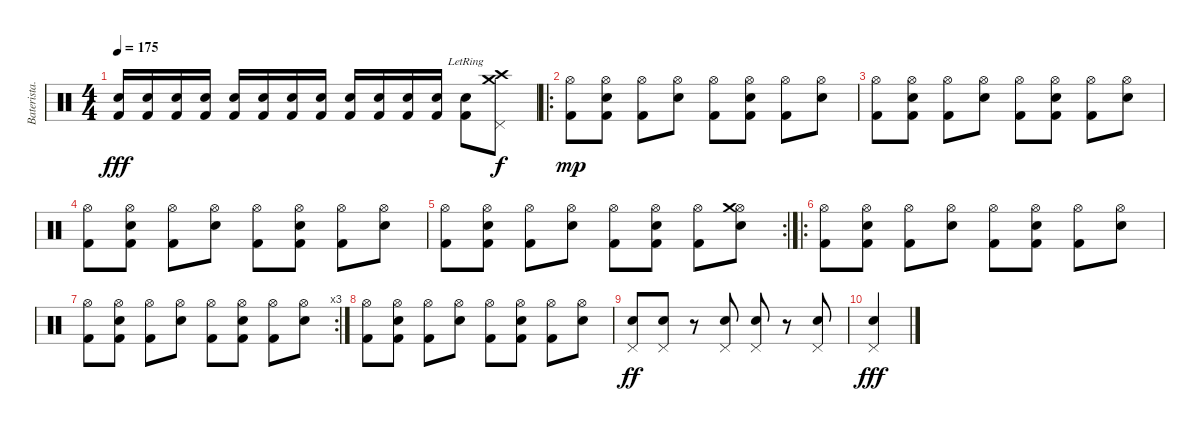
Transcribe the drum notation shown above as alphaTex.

\track ("Baterista." "Baterista.") {instrument percussion}
\staff {score}
\articulation defaults
\ts (4 4)
\tempo 175
\clef neutral
\ks c
("Kick (hit) 2" "Electric Snare (hit)").16{dy fff} ("Kick (hit) 2" "Electric Snare (hit)").16 ("Kick (hit) 2" "Electric Snare (hit)").16 ("Kick (hit) 2" "Electric Snare (hit)").16 ("Kick (hit) 2" "Electric Snare (hit)").16 ("Kick (hit) 2" "Electric Snare (hit)").16 ("Kick (hit) 2" "Electric Snare (hit)").16 ("Kick (hit) 2" "Electric Snare (hit)").16 ("Kick (hit) 2" "Electric Snare (hit)").16 ("Kick (hit) 2" "Electric Snare (hit)").16 ("Kick (hit) 2" "Electric Snare (hit)").16 ("Kick (hit) 2" "Electric Snare (hit)").16 ("Kick (hit) 2"{lr} "Electric Snare (hit)"{lr}).8 ("Crash high (hit)" "Pedal Hi-Hat (hit)" "Crash medium (hit)").8{dy f} |
\ro
("Kick (hit) 2" "Hi-Hat (open)").8{dy mp} ("Kick (hit) 2" "Hi-Hat (open)" "Electric Snare (hit)").8 ("Kick (hit) 2" "Hi-Hat (open)").8 ("Hi-Hat (open)" "Electric Snare (hit)").8 ("Kick (hit) 2" "Hi-Hat (open)").8 ("Kick (hit) 2" "Hi-Hat (open)" "Electric Snare (hit)").8 ("Kick (hit) 2" "Hi-Hat (open)").8 ("Hi-Hat (open)" "Electric Snare (hit)").8 |
("Kick (hit) 2" "Hi-Hat (open)").8 ("Kick (hit) 2" "Hi-Hat (open)" "Electric Snare (hit)").8 ("Kick (hit) 2" "Hi-Hat (open)").8 ("Hi-Hat (open)" "Electric Snare (hit)").8 ("Kick (hit) 2" "Hi-Hat (open)").8 ("Kick (hit) 2" "Hi-Hat (open)" "Electric Snare (hit)").8 ("Kick (hit) 2" "Hi-Hat (open)").8 ("Hi-Hat (open)" "Electric Snare (hit)").8 |
("Kick (hit) 2" "Hi-Hat (open)").8 ("Kick (hit) 2" "Hi-Hat (open)" "Electric Snare (hit)").8 ("Kick (hit) 2" "Hi-Hat (open)").8 ("Hi-Hat (open)" "Electric Snare (hit)").8 ("Kick (hit) 2" "Hi-Hat (open)").8 ("Kick (hit) 2" "Hi-Hat (open)" "Electric Snare (hit)").8 ("Kick (hit) 2" "Hi-Hat (open)").8 ("Hi-Hat (open)" "Electric Snare (hit)").8 |
\rc 2
("Kick (hit) 2" "Hi-Hat (open)").8 ("Kick (hit) 2" "Hi-Hat (open)" "Electric Snare (hit)").8 ("Kick (hit) 2" "Hi-Hat (open)").8 ("Hi-Hat (open)" "Electric Snare (hit)").8 ("Kick (hit) 2" "Hi-Hat (open)").8 ("Kick (hit) 2" "Hi-Hat (open)" "Electric Snare (hit)").8 ("Kick (hit) 2" "Hi-Hat (open)").8 ("Hi-Hat (open)" "Electric Snare (hit)" "Crash medium (hit)").8 |
\ro
("Kick (hit) 2" "Hi-Hat (open)").8 ("Kick (hit) 2" "Hi-Hat (open)" "Electric Snare (hit)").8 ("Kick (hit) 2" "Hi-Hat (open)").8 ("Hi-Hat (open)" "Electric Snare (hit)").8 ("Kick (hit) 2" "Hi-Hat (open)").8 ("Kick (hit) 2" "Hi-Hat (open)" "Electric Snare (hit)").8 ("Kick (hit) 2" "Hi-Hat (open)").8 ("Hi-Hat (open)" "Electric Snare (hit)").8 |
\rc 3
("Kick (hit) 2" "Hi-Hat (open)").8 ("Kick (hit) 2" "Hi-Hat (open)" "Electric Snare (hit)").8 ("Kick (hit) 2" "Hi-Hat (open)").8 ("Hi-Hat (open)" "Electric Snare (hit)").8 ("Kick (hit) 2" "Hi-Hat (open)").8 ("Kick (hit) 2" "Hi-Hat (open)" "Electric Snare (hit)").8 ("Kick (hit) 2" "Hi-Hat (open)").8 ("Hi-Hat (open)" "Electric Snare (hit)").8 |
("Kick (hit) 2" "Hi-Hat (open)").8 ("Kick (hit) 2" "Hi-Hat (open)" "Electric Snare (hit)").8 ("Kick (hit) 2" "Hi-Hat (open)").8 ("Hi-Hat (open)" "Electric Snare (hit)").8 ("Kick (hit) 2" "Hi-Hat (open)").8 ("Kick (hit) 2" "Hi-Hat (open)" "Electric Snare (hit)").8 ("Kick (hit) 2" "Hi-Hat (open)").8 ("Hi-Hat (open)" "Electric Snare (hit)").8 |
("Pedal Hi-Hat (hit)" "Electric Snare (hit)").8{dy ff} ("Pedal Hi-Hat (hit)" "Electric Snare (hit)").8 r.8 ("Pedal Hi-Hat (hit)" "Electric Snare (hit)").8 ("Pedal Hi-Hat (hit)" "Electric Snare (hit)").8 r.8 ("Pedal Hi-Hat (hit)" "Electric Snare (hit)").8 |
("Pedal Hi-Hat (hit)" "Electric Snare (hit)").4{dy fff}
